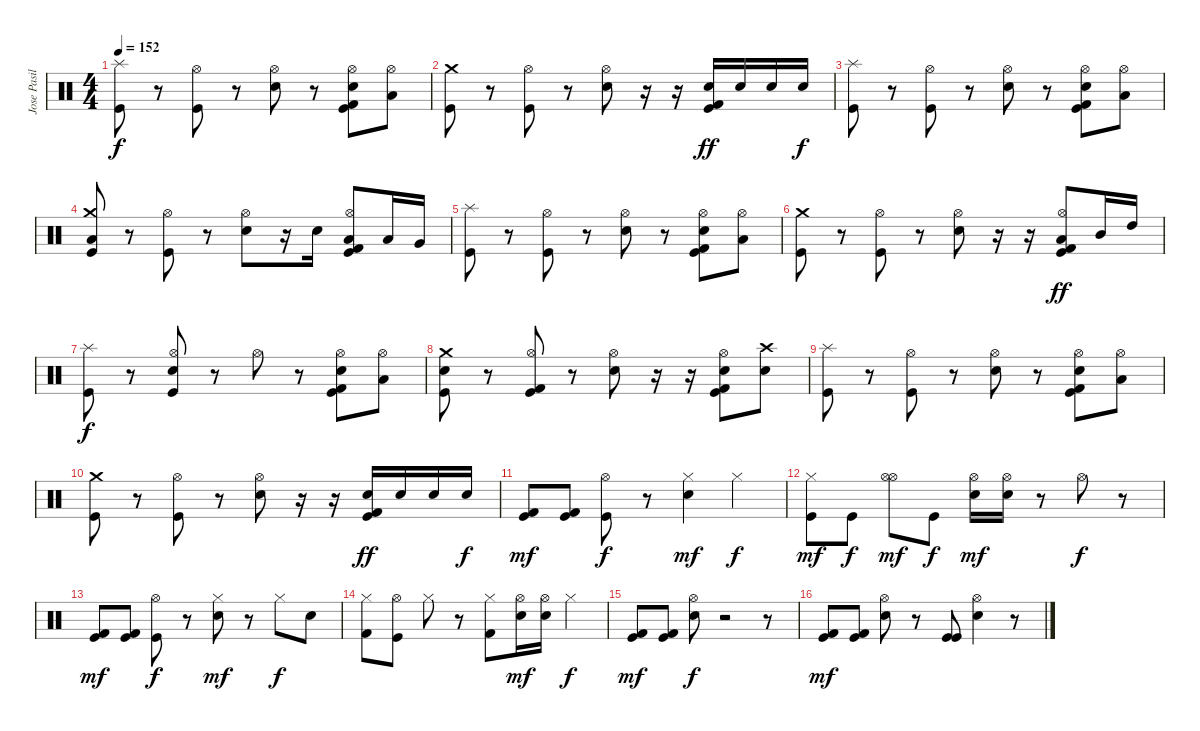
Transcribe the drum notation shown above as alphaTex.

\track ("Jose Pasillas" "Jose Pasil") {instrument percussion}
\staff {score}
\articulation defaults
\ts (4 4)
\tempo 152
\clef neutral
\ks c
("Splash (hit)" "Kick (hit)").8{dy f} r.8 ("Hi-Hat (open)" "Kick (hit)").8 r.8 ("Hi-Hat (open)" "Electric Snare (hit)").8 r.8 ("Hi-Hat (open)" "Electric Snare (hit)" "Kick (hit) 2" "Kick (hit)").8 ("Hi-Hat (open)" "Low Tom (hit)").8 |
("Crash medium (hit)" "Kick (hit)").8 r.8 ("Hi-Hat (open)" "Kick (hit)").8 r.8 ("Hi-Hat (open)" "Electric Snare (hit)").8 r.16 r.16 ("Electric Snare (hit)" "Kick (hit) 2" "Kick (hit)").16{dy ff} "Electric Snare (hit)".16 "Electric Snare (hit)".16 "Electric Snare (hit)".16{dy f} |
("Splash (hit)" "Kick (hit)").8 r.8 ("Hi-Hat (open)" "Kick (hit)").8 r.8 ("Hi-Hat (open)" "Electric Snare (hit)").8 r.8 ("Hi-Hat (open)" "Electric Snare (hit)" "Kick (hit) 2" "Kick (hit)").8 ("Hi-Hat (open)" "Low Tom (hit)").8 |
("Crash medium (hit)" "Low Floor Tom (hit)" "Kick (hit)").8 r.8 ("Hi-Hat (open)" "Kick (hit)").8 r.8 ("Hi-Hat (open)" "Electric Snare (hit)").8 r.16 "Electric Snare (hit)".16 ("Hi-Hat (open)" "Low Tom (hit)" "Kick (hit) 2" "Kick (hit)").8 "Low Floor Tom (hit)".16 "Very Low Tom (hit)".16 |
("Splash (hit)" "Kick (hit)").8 r.8 ("Hi-Hat (open)" "Kick (hit)").8 r.8 ("Hi-Hat (open)" "Electric Snare (hit)").8 r.8 ("Hi-Hat (open)" "Electric Snare (hit)" "Kick (hit) 2" "Kick (hit)").8 ("Hi-Hat (open)" "Low Tom (hit)").8 |
("Crash medium (hit)" "Kick (hit)").8 r.8 ("Hi-Hat (open)" "Kick (hit)").8 r.8 ("Hi-Hat (open)" "Electric Snare (hit)").8 r.16 r.16 ("Hi-Hat (open)" "Low Tom (hit)" "Kick (hit) 2" "Kick (hit)").8{dy ff} "Mid Tom (hit)".16 "High Tom (hit)".16 |
("Splash (hit)" "Kick (hit)").8{dy f} r.8 ("Hi-Hat (open)" "Electric Snare (hit)" "Kick (hit)").8 r.8 "Hi-Hat (open)".8 r.8 ("Hi-Hat (open)" "Electric Snare (hit)" "Kick (hit) 2" "Kick (hit)").8 ("Hi-Hat (open)" "Low Tom (hit)").8 |
("Crash medium (hit)" "Electric Snare (hit)" "Kick (hit)").8 r.8 ("Hi-Hat (open)" "Kick (hit) 2" "Kick (hit)").8 r.8 ("Hi-Hat (open)" "Electric Snare (hit)").8 r.16 r.16 ("Hi-Hat (open)" "Electric Snare (hit)" "Kick (hit) 2" "Kick (hit)").8 ("Crash high (hit)" "Electric Snare (hit)").8 |
("Splash (hit)" "Kick (hit)").8 r.8 ("Hi-Hat (open)" "Kick (hit)").8 r.8 ("Hi-Hat (open)" "Electric Snare (hit)").8 r.8 ("Hi-Hat (open)" "Electric Snare (hit)" "Kick (hit) 2" "Kick (hit)").8 ("Hi-Hat (open)" "Low Tom (hit)").8 |
("Crash medium (hit)" "Kick (hit)").8 r.8 ("Hi-Hat (open)" "Kick (hit)").8 r.8 ("Hi-Hat (open)" "Electric Snare (hit)").8 r.16 r.16 ("Electric Snare (hit)" "Kick (hit) 2" "Kick (hit)").16{dy ff} "Electric Snare (hit)".16 "Electric Snare (hit)".16 "Electric Snare (hit)".16{dy f} |
("Kick (hit)" "Kick (hit) 2").8{dy mf} ("Kick (hit)" "Kick (hit) 2").8 ("Kick (hit)" "Hi-Hat (open)").8{dy f} r.8 ("Electric Snare (hit)" "Hi-Hat (closed)").4{dy mf} "Hi-Hat (closed)".4{dy f} |
("Kick (hit)" "Hi-Hat (closed)").8{dy mf} "Kick (hit)".8{dy f} ("Hi-Hat (open)" "Hi-Hat (open)").8{dy mf} "Kick (hit)".8{dy f} ("Electric Snare (hit)" "Hi-Hat (open)").16{dy mf} ("Electric Snare (hit)" "Hi-Hat (open)").16 r.8 "Hi-Hat (open)".8{dy f} r.8 |
("Kick (hit)" "Kick (hit) 2").8{dy mf} ("Kick (hit)" "Kick (hit) 2").8 ("Kick (hit)" "Hi-Hat (open)").8{dy f} r.8 ("Electric Snare (hit)" "Hi-Hat (closed)").8{dy mf} r.8 "Hi-Hat (closed)".8{dy f} "Electric Snare (hit)".8 |
("Hi-Hat (closed)" "Kick (hit) 2").8 ("Kick (hit)" "Hi-Hat (open)").8 "Hi-Hat (closed)".8 r.8 ("Hi-Hat (closed)" "Kick (hit) 2").8 ("Hi-Hat (open)" "Electric Snare (hit)").16{dy mf} ("Hi-Hat (open)" "Electric Snare (hit)").16 "Hi-Hat (closed)".4{dy f} |
("Kick (hit)" "Kick (hit) 2").8{dy mf} ("Kick (hit)" "Kick (hit) 2").8 ("Electric Snare (hit)" "Hi-Hat (open)").8{dy f} r.2 r.8 |
("Kick (hit)" "Kick (hit) 2").8{dy mf} ("Kick (hit)" "Kick (hit) 2").8 ("Electric Snare (hit)" "Hi-Hat (open)").8 r.8 ("Kick (hit)" "Kick (hit)").8 ("Electric Snare (hit)" "Hi-Hat (open)").4 r.8
